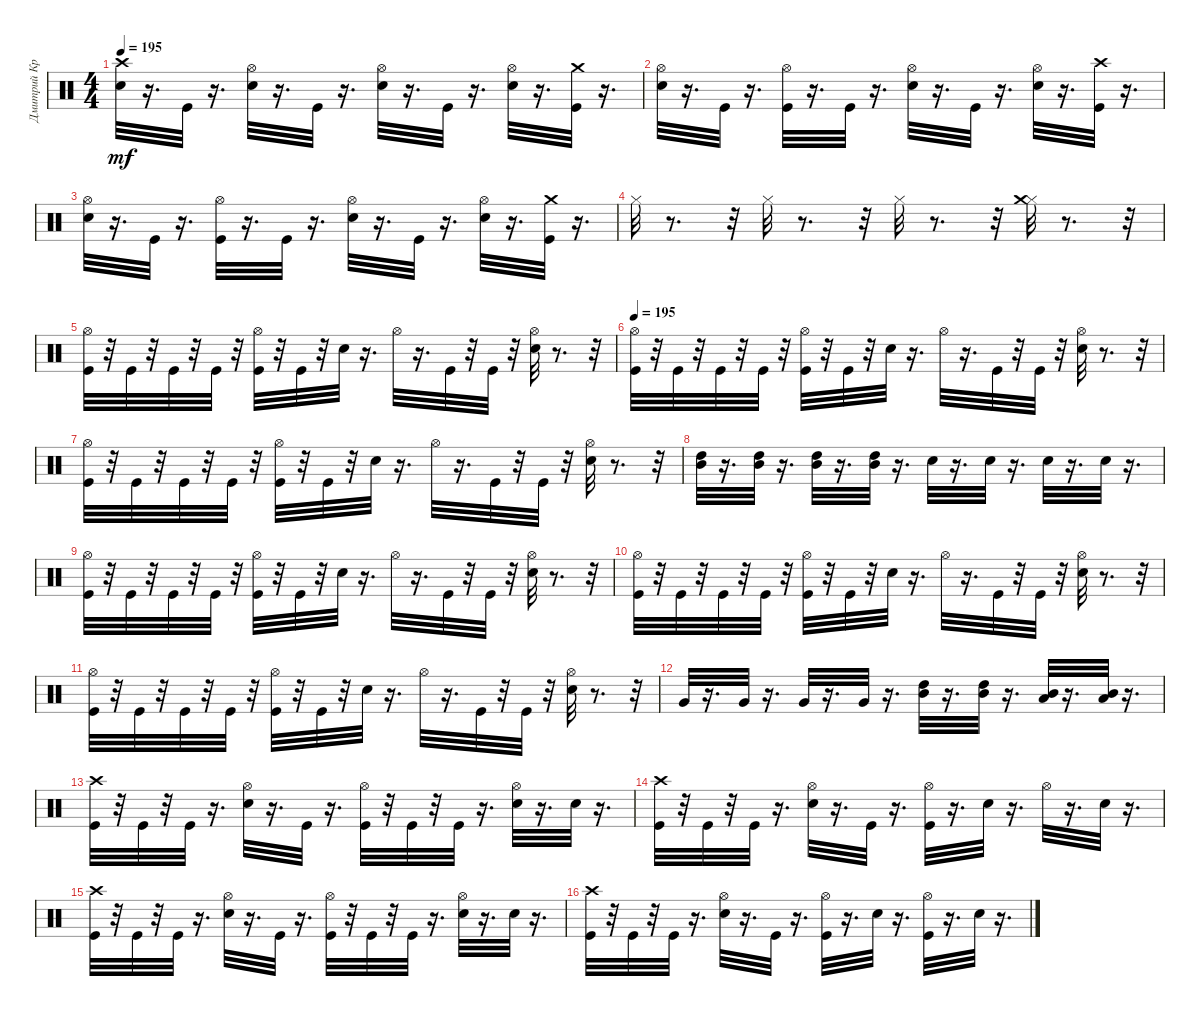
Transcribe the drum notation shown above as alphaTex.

\track ("Дмитрий Кривенков" "Дмитрий Кр") {instrument percussion}
\staff {score}
\articulation defaults
\ts (4 4)
\tempo 195
\clef neutral
\ks c
("Crash high (hit)" "Electric Snare (hit)").32{dy mf} r.16{d} "Kick (hit)".32 r.16{d} ("Electric Snare (hit)" "Hi-Hat (open)").32 r.16{d} "Kick (hit)".32 r.16{d} ("Electric Snare (hit)" "Hi-Hat (open)").32 r.16{d} "Kick (hit)".32 r.16{d} ("Hi-Hat (open)" "Electric Snare (hit)").32 r.16{d} ("Kick (hit)" "Crash medium (hit)").32 r.16{d} |
("Hi-Hat (open)" "Electric Snare (hit)").32 r.16{d} "Kick (hit)".32 r.16{d} ("Hi-Hat (open)" "Kick (hit)").32 r.16{d} "Kick (hit)".32 r.16{d} ("Hi-Hat (open)" "Electric Snare (hit)").32 r.16{d} "Kick (hit)".32 r.16{d} ("Electric Snare (hit)" "Hi-Hat (open)").32 r.16{d} ("Crash high (hit)" "Kick (hit)").32 r.16{d} |
("Electric Snare (hit)" "Hi-Hat (open)").32 r.16{d} "Kick (hit)".32 r.16{d} ("Kick (hit)" "Hi-Hat (open)").32 r.16{d} "Kick (hit)".32 r.16{d} ("Electric Snare (hit)" "Hi-Hat (open)").32 r.16{d} "Kick (hit)".32 r.16{d} ("Electric Snare (hit)" "Hi-Hat (open)").32 r.16{d} ("Kick (hit)" "Crash medium (hit)").32 r.16{d} |
"Hi-Hat (closed)".32 r.8{d} r.32 "Hi-Hat (closed)".32 r.8{d} r.32 "Hi-Hat (closed)".32 r.8{d} r.32 ("Hi-Hat (closed)" "Crash medium (hit)").32 r.8{d} r.32 |
("Kick (hit)" "Hi-Hat (open)").32 r.32 "Kick (hit)".32 r.32 "Kick (hit)".32 r.32 "Kick (hit)".32 r.32 ("Kick (hit)" "Hi-Hat (open)").32 r.32 "Kick (hit)".32 r.32 "Electric Snare (hit)".32 r.16{d} "Hi-Hat (open)".32 r.16{d} "Kick (hit)".32 r.32 "Kick (hit)".32 r.32 ("Hi-Hat (open)" "Electric Snare (hit)").32 r.8{d} r.32 |
\tempo 195
("Kick (hit)" "Hi-Hat (open)").32 r.32 "Kick (hit)".32 r.32 "Kick (hit)".32 r.32 "Kick (hit)".32 r.32 ("Kick (hit)" "Hi-Hat (open)").32 r.32 "Kick (hit)".32 r.32 "Electric Snare (hit)".32 r.16{d} "Hi-Hat (open)".32 r.16{d} "Kick (hit)".32 r.32 "Kick (hit)".32 r.32 ("Electric Snare (hit)" "Hi-Hat (open)").32 r.8{d} r.32 |
("Kick (hit)" "Hi-Hat (open)").32 r.32 "Kick (hit)".32 r.32 "Kick (hit)".32 r.32 "Kick (hit)".32 r.32 ("Kick (hit)" "Hi-Hat (open)").32 r.32 "Kick (hit)".32 r.32 "Electric Snare (hit)".32 r.16{d} "Hi-Hat (open)".32 r.16{d} "Kick (hit)".32 r.32 "Kick (hit)".32 r.32 ("Electric Snare (hit)" "Hi-Hat (open)").32 r.8{d} r.32 |
("Mid Tom (hit)" "High Tom (hit)").32 r.16{d} ("Mid Tom (hit)" "High Tom (hit)").32 r.16{d} ("High Tom (hit)" "Mid Tom (hit)").32 r.16{d} ("High Tom (hit)" "Mid Tom (hit)").32 r.16{d} "Electric Snare (hit)".32 r.16{d} "Electric Snare (hit)".32 r.16{d} "Electric Snare (hit)".32 r.16{d} "Electric Snare (hit)".32 r.16{d} |
("Kick (hit)" "Hi-Hat (open)").32 r.32 "Kick (hit)".32 r.32 "Kick (hit)".32 r.32 "Kick (hit)".32 r.32 ("Kick (hit)" "Hi-Hat (open)").32 r.32 "Kick (hit)".32 r.32 "Electric Snare (hit)".32 r.16{d} "Hi-Hat (open)".32 r.16{d} "Kick (hit)".32 r.32 "Kick (hit)".32 r.32 ("Hi-Hat (open)" "Electric Snare (hit)").32 r.8{d} r.32 |
("Kick (hit)" "Hi-Hat (open)").32 r.32 "Kick (hit)".32 r.32 "Kick (hit)".32 r.32 "Kick (hit)".32 r.32 ("Kick (hit)" "Hi-Hat (open)").32 r.32 "Kick (hit)".32 r.32 "Electric Snare (hit)".32 r.16{d} "Hi-Hat (open)".32 r.16{d} "Kick (hit)".32 r.32 "Kick (hit)".32 r.32 ("Electric Snare (hit)" "Hi-Hat (open)").32 r.8{d} r.32 |
("Kick (hit)" "Hi-Hat (open)").32 r.32 "Kick (hit)".32 r.32 "Kick (hit)".32 r.32 "Kick (hit)".32 r.32 ("Kick (hit)" "Hi-Hat (open)").32 r.32 "Kick (hit)".32 r.32 "Electric Snare (hit)".32 r.16{d} "Hi-Hat (open)".32 r.16{d} "Kick (hit)".32 r.32 "Kick (hit)".32 r.32 ("Electric Snare (hit)" "Hi-Hat (open)").32 r.8{d} r.32 |
"Very Low Tom (hit)".32 r.16{d} "Very Low Tom (hit)".32 r.16{d} "Very Low Tom (hit)".32 r.16{d} "Very Low Tom (hit)".32 r.16{d} ("Mid Tom (hit)" "High Tom (hit)").32 r.16{d} ("Mid Tom (hit)" "High Tom (hit)").32 r.16{d} ("Low Tom (hit)" "Mid Tom (hit)").32 r.16{d} ("Low Tom (hit)" "Mid Tom (hit)").32 r.16{d} |
("Kick (hit)" "Crash high (hit)").32 r.32 "Kick (hit)".32 r.32 "Kick (hit)".32 r.16{d} ("Hi-Hat (open)" "Electric Snare (hit)").32 r.16{d} "Kick (hit)".32 r.16{d} ("Kick (hit)" "Hi-Hat (open)").32 r.32 "Kick (hit)".32 r.32 "Kick (hit)".32 r.16{d} ("Hi-Hat (open)" "Electric Snare (hit)").32 r.16{d} "Electric Snare (hit)".32 r.16{d} |
("Crash high (hit)" "Kick (hit)").32 r.32 "Kick (hit)".32 r.32 "Kick (hit)".32 r.16{d} ("Electric Snare (hit)" "Hi-Hat (open)").32 r.16{d} "Kick (hit)".32 r.16{d} ("Kick (hit)" "Hi-Hat (open)").32 r.16{d} "Electric Snare (hit)".32 r.16{d} "Hi-Hat (open)".32 r.16{d} "Electric Snare (hit)".32 r.16{d} |
("Crash high (hit)" "Kick (hit)").32 r.32 "Kick (hit)".32 r.32 "Kick (hit)".32 r.16{d} ("Electric Snare (hit)" "Hi-Hat (open)").32 r.16{d} "Kick (hit)".32 r.16{d} ("Kick (hit)" "Hi-Hat (open)").32 r.32 "Kick (hit)".32 r.32 "Kick (hit)".32 r.16{d} ("Electric Snare (hit)" "Hi-Hat (open)").32 r.16{d} "Electric Snare (hit)".32 r.16{d} |
("Crash high (hit)" "Kick (hit)").32 r.32 "Kick (hit)".32 r.32 "Kick (hit)".32 r.16{d} ("Electric Snare (hit)" "Hi-Hat (open)").32 r.16{d} "Kick (hit)".32 r.16{d} ("Kick (hit)" "Hi-Hat (open)").32 r.16{d} "Electric Snare (hit)".32 r.16{d} ("Kick (hit)" "Hi-Hat (open)").32 r.16{d} "Electric Snare (hit)".32 r.16{d}
